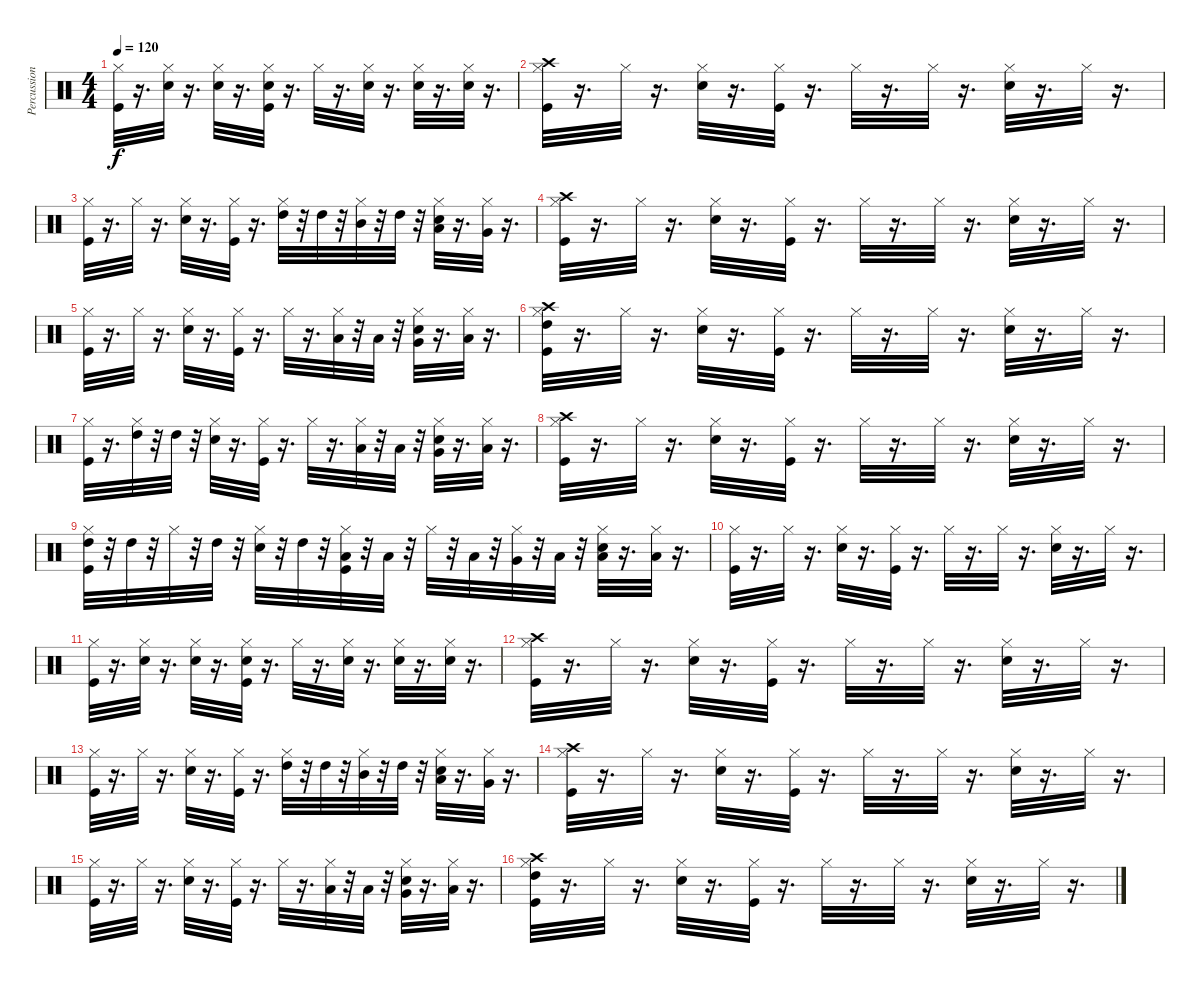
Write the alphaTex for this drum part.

\track ("Percussion" "Percussion") {instrument percussion}
\staff {score}
\articulation defaults
\ts (4 4)
\tempo 120
\clef neutral
\ks c
("Kick (hit)" "Hi-Hat (closed)").32{dy f} r.16{d} ("Hi-Hat (closed)" "Electric Snare (hit)").32 r.16{d} ("Electric Snare (hit)" "Hi-Hat (closed)").32 r.16{d} ("Kick (hit)" "Hi-Hat (closed)" "Electric Snare (hit)").32 r.16{d} "Hi-Hat (closed)".32 r.16{d} ("Hi-Hat (closed)" "Electric Snare (hit)").32 r.16{d} ("Electric Snare (hit)" "Hi-Hat (closed)").32 r.16{d} ("Hi-Hat (closed)" "Electric Snare (hit)").32 r.16{d} |
("Kick (hit)" "Hi-Hat (closed)" "Crash high (hit)").32 r.16{d} "Hi-Hat (closed)".32 r.16{d} ("Electric Snare (hit)" "Hi-Hat (closed)").32 r.16{d} ("Kick (hit)" "Hi-Hat (closed)").32 r.16{d} "Hi-Hat (closed)".32 r.16{d} "Hi-Hat (closed)".32 r.16{d} ("Electric Snare (hit)" "Hi-Hat (closed)").32 r.16{d} "Hi-Hat (closed)".32 r.16{d} |
("Kick (hit)" "Hi-Hat (closed)").32 r.16{d} "Hi-Hat (closed)".32 r.16{d} ("Electric Snare (hit)" "Hi-Hat (closed)").32 r.16{d} ("Kick (hit)" "Hi-Hat (closed)").32 r.16{d} ("Hi-Hat (closed)" "High Tom (hit)").32 r.32 "High Tom (hit)".32 r.32 ("Hi-Hat (closed)" "Mid Tom (hit)").32 r.32 "High Tom (hit)".32 r.32 ("Electric Snare (hit)" "Hi-Hat (closed)" "Low Tom (hit)").32 r.16{d} ("Hi-Hat (closed)" "Very Low Tom (hit)").32 r.16{d} |
("Kick (hit)" "Hi-Hat (closed)" "Crash high (hit)").32 r.16{d} "Hi-Hat (closed)".32 r.16{d} ("Electric Snare (hit)" "Hi-Hat (closed)").32 r.16{d} ("Kick (hit)" "Hi-Hat (closed)").32 r.16{d} "Hi-Hat (closed)".32 r.16{d} "Hi-Hat (closed)".32 r.16{d} ("Electric Snare (hit)" "Hi-Hat (closed)").32 r.16{d} "Hi-Hat (closed)".32 r.16{d} |
("Kick (hit)" "Hi-Hat (closed)").32 r.16{d} "Hi-Hat (closed)".32 r.16{d} ("Electric Snare (hit)" "Hi-Hat (closed)").32 r.16{d} ("Kick (hit)" "Hi-Hat (closed)").32 r.16{d} "Hi-Hat (closed)".32 r.16{d} ("Hi-Hat (closed)" "Low Tom (hit)").32 r.32 "Low Tom (hit)".32 r.32 ("Electric Snare (hit)" "Hi-Hat (closed)" "Very Low Tom (hit)").32 r.16{d} ("Hi-Hat (closed)" "Low Floor Tom (hit)").32 r.16{d} |
("Kick (hit)" "Hi-Hat (closed)" "High Tom (hit)" "Crash high (hit)").32 r.16{d} "Hi-Hat (closed)".32 r.16{d} ("Electric Snare (hit)" "Hi-Hat (closed)").32 r.16{d} ("Kick (hit)" "Hi-Hat (closed)").32 r.16{d} "Hi-Hat (closed)".32 r.16{d} "Hi-Hat (closed)".32 r.16{d} ("Electric Snare (hit)" "Hi-Hat (closed)").32 r.16{d} "Hi-Hat (closed)".32 r.16{d} |
("Kick (hit)" "Hi-Hat (closed)").32 r.16{d} ("Hi-Hat (closed)" "High Tom (hit)").32 r.32 "High Tom (hit)".32 r.32 ("Electric Snare (hit)" "Hi-Hat (closed)").32 r.16{d} ("Kick (hit)" "Hi-Hat (closed)").32 r.16{d} "Hi-Hat (closed)".32 r.16{d} ("Hi-Hat (closed)" "Low Tom (hit)").32 r.32 "Low Tom (hit)".32 r.32 ("Electric Snare (hit)" "Hi-Hat (closed)" "Very Low Tom (hit)").32 r.16{d} ("Hi-Hat (closed)" "Low Floor Tom (hit)").32 r.16{d} |
("Kick (hit)" "Hi-Hat (closed)" "Crash high (hit)").32 r.16{d} "Hi-Hat (closed)".32 r.16{d} ("Electric Snare (hit)" "Hi-Hat (closed)").32 r.16{d} ("Kick (hit)" "Hi-Hat (closed)").32 r.16{d} "Hi-Hat (closed)".32 r.16{d} "Hi-Hat (closed)".32 r.16{d} ("Electric Snare (hit)" "Hi-Hat (closed)").32 r.16{d} "Hi-Hat (closed)".32 r.16{d} |
("Kick (hit)" "Hi-Hat (closed)" "High Tom (hit)").32 r.32 "High Tom (hit)".32 r.32 "Hi-Hat (closed)".32 r.32 "High Tom (hit)".32 r.32 ("Electric Snare (hit)" "Hi-Hat (closed)").32 r.32 "High Tom (hit)".32 r.32 ("Kick (hit)" "Hi-Hat (closed)" "Low Tom (hit)").32 r.32 "Low Tom (hit)".32 r.32 "Hi-Hat (closed)".32 r.32 "Low Tom (hit)".32 r.32 ("Hi-Hat (closed)" "Very Low Tom (hit)").32 r.32 "Low Tom (hit)".32 r.32 ("Electric Snare (hit)" "Hi-Hat (closed)" "Low Floor Tom (hit)").32 r.16{d} ("Hi-Hat (closed)" "Low Floor Tom (hit)").32 r.16{d} |
("Kick (hit)" "Hi-Hat (closed)").32 r.16{d} "Hi-Hat (closed)".32 r.16{d} ("Electric Snare (hit)" "Hi-Hat (closed)").32 r.16{d} ("Kick (hit)" "Hi-Hat (closed)").32 r.16{d} "Hi-Hat (closed)".32 r.16{d} "Hi-Hat (closed)".32 r.16{d} ("Electric Snare (hit)" "Hi-Hat (closed)").32 r.16{d} "Hi-Hat (closed)".32 r.16{d} |
("Kick (hit)" "Hi-Hat (closed)").32 r.16{d} ("Hi-Hat (closed)" "Electric Snare (hit)").32 r.16{d} ("Electric Snare (hit)" "Hi-Hat (closed)").32 r.16{d} ("Kick (hit)" "Hi-Hat (closed)" "Electric Snare (hit)").32 r.16{d} "Hi-Hat (closed)".32 r.16{d} ("Hi-Hat (closed)" "Electric Snare (hit)").32 r.16{d} ("Electric Snare (hit)" "Hi-Hat (closed)").32 r.16{d} ("Hi-Hat (closed)" "Electric Snare (hit)").32 r.16{d} |
("Kick (hit)" "Hi-Hat (closed)" "Crash high (hit)").32 r.16{d} "Hi-Hat (closed)".32 r.16{d} ("Electric Snare (hit)" "Hi-Hat (closed)").32 r.16{d} ("Kick (hit)" "Hi-Hat (closed)").32 r.16{d} "Hi-Hat (closed)".32 r.16{d} "Hi-Hat (closed)".32 r.16{d} ("Electric Snare (hit)" "Hi-Hat (closed)").32 r.16{d} "Hi-Hat (closed)".32 r.16{d} |
("Kick (hit)" "Hi-Hat (closed)").32 r.16{d} "Hi-Hat (closed)".32 r.16{d} ("Electric Snare (hit)" "Hi-Hat (closed)").32 r.16{d} ("Kick (hit)" "Hi-Hat (closed)").32 r.16{d} ("Hi-Hat (closed)" "High Tom (hit)").32 r.32 "High Tom (hit)".32 r.32 ("Hi-Hat (closed)" "Mid Tom (hit)").32 r.32 "High Tom (hit)".32 r.32 ("Electric Snare (hit)" "Hi-Hat (closed)" "Low Tom (hit)").32 r.16{d} ("Hi-Hat (closed)" "Very Low Tom (hit)").32 r.16{d} |
("Kick (hit)" "Hi-Hat (closed)" "Crash high (hit)").32 r.16{d} "Hi-Hat (closed)".32 r.16{d} ("Electric Snare (hit)" "Hi-Hat (closed)").32 r.16{d} ("Kick (hit)" "Hi-Hat (closed)").32 r.16{d} "Hi-Hat (closed)".32 r.16{d} "Hi-Hat (closed)".32 r.16{d} ("Electric Snare (hit)" "Hi-Hat (closed)").32 r.16{d} "Hi-Hat (closed)".32 r.16{d} |
("Kick (hit)" "Hi-Hat (closed)").32 r.16{d} "Hi-Hat (closed)".32 r.16{d} ("Electric Snare (hit)" "Hi-Hat (closed)").32 r.16{d} ("Kick (hit)" "Hi-Hat (closed)").32 r.16{d} "Hi-Hat (closed)".32 r.16{d} ("Hi-Hat (closed)" "Low Tom (hit)").32 r.32 "Low Tom (hit)".32 r.32 ("Electric Snare (hit)" "Hi-Hat (closed)" "Very Low Tom (hit)").32 r.16{d} ("Hi-Hat (closed)" "Low Floor Tom (hit)").32 r.16{d} |
("Kick (hit)" "Hi-Hat (closed)" "High Tom (hit)" "Crash high (hit)").32 r.16{d} "Hi-Hat (closed)".32 r.16{d} ("Electric Snare (hit)" "Hi-Hat (closed)").32 r.16{d} ("Kick (hit)" "Hi-Hat (closed)").32 r.16{d} "Hi-Hat (closed)".32 r.16{d} "Hi-Hat (closed)".32 r.16{d} ("Electric Snare (hit)" "Hi-Hat (closed)").32 r.16{d} "Hi-Hat (closed)".32 r.16{d}
